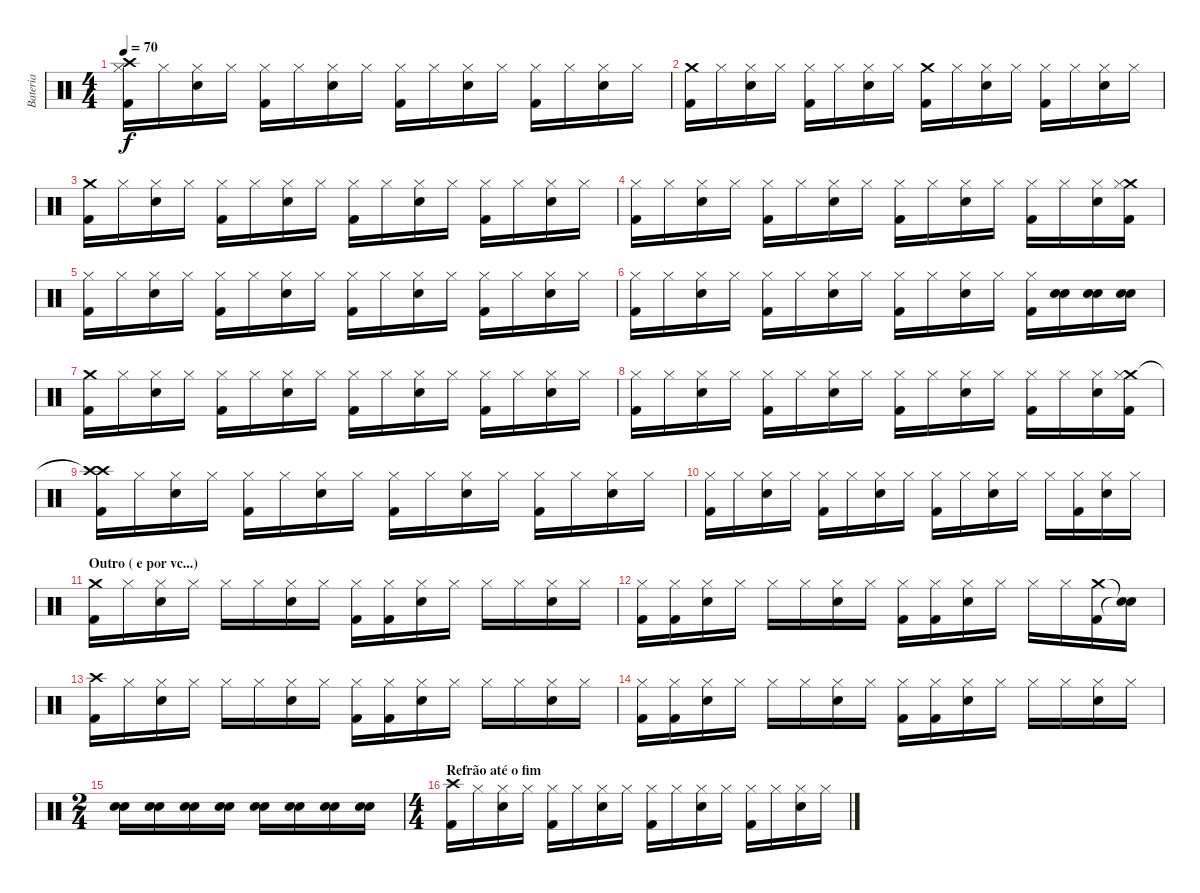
\track ("Bateria" "Bateria") {instrument percussion}
\staff {score}
\articulation defaults
\ts (4 4)
\tempo 70
\clef neutral
\ks c
("Kick (hit) 2" "Crash high (hit)" "Hi-Hat (closed)").16{dy f} "Hi-Hat (closed)".16 ("Snare (hit) 2" "Hi-Hat (closed)").16 "Hi-Hat (closed)".16 ("Kick (hit) 2" "Hi-Hat (closed)").16 "Hi-Hat (closed)".16 ("Snare (hit) 2" "Hi-Hat (closed)").16 "Hi-Hat (closed)".16 ("Kick (hit) 2" "Hi-Hat (closed)").16 "Hi-Hat (closed)".16 ("Snare (hit) 2" "Hi-Hat (closed)").16 "Hi-Hat (closed)".16 ("Kick (hit) 2" "Hi-Hat (closed)").16 "Hi-Hat (closed)".16 ("Snare (hit) 2" "Hi-Hat (closed)").16 "Hi-Hat (closed)".16 |
("Kick (hit) 2" "Crash medium (hit)").16 "Hi-Hat (closed)".16 ("Snare (hit) 2" "Hi-Hat (closed)").16 "Hi-Hat (closed)".16 ("Kick (hit) 2" "Hi-Hat (closed)").16 "Hi-Hat (closed)".16 ("Snare (hit) 2" "Hi-Hat (closed)").16 "Hi-Hat (closed)".16 ("Kick (hit) 2" "Crash medium (hit)").16 "Hi-Hat (closed)".16 ("Snare (hit) 2" "Hi-Hat (closed)").16 "Hi-Hat (closed)".16 ("Kick (hit) 2" "Hi-Hat (closed)").16 "Hi-Hat (closed)".16 ("Snare (hit) 2" "Hi-Hat (closed)").16 "Hi-Hat (closed)".16 |
("Kick (hit) 2" "Crash medium (hit)").16 "Hi-Hat (closed)".16 ("Snare (hit) 2" "Hi-Hat (closed)").16 "Hi-Hat (closed)".16 ("Kick (hit) 2" "Hi-Hat (closed)").16 "Hi-Hat (closed)".16 ("Snare (hit) 2" "Hi-Hat (closed)").16 "Hi-Hat (closed)".16 ("Kick (hit) 2" "Hi-Hat (closed)").16 "Hi-Hat (closed)".16 ("Snare (hit) 2" "Hi-Hat (closed)").16 "Hi-Hat (closed)".16 ("Kick (hit) 2" "Hi-Hat (closed)").16 "Hi-Hat (closed)".16 ("Snare (hit) 2" "Hi-Hat (closed)").16 "Hi-Hat (closed)".16 |
("Kick (hit) 2" "Hi-Hat (closed)").16 "Hi-Hat (closed)".16 ("Snare (hit) 2" "Hi-Hat (closed)").16 "Hi-Hat (closed)".16 ("Kick (hit) 2" "Hi-Hat (closed)").16 "Hi-Hat (closed)".16 ("Snare (hit) 2" "Hi-Hat (closed)").16 "Hi-Hat (closed)".16 ("Kick (hit) 2" "Hi-Hat (closed)").16 "Hi-Hat (closed)".16 ("Snare (hit) 2" "Hi-Hat (closed)").16 "Hi-Hat (closed)".16 ("Kick (hit) 2" "Hi-Hat (closed)").16 "Hi-Hat (closed)".16 ("Snare (hit) 2" "Hi-Hat (closed)").16 ("Kick (hit) 2" "Crash medium (hit)" "Hi-Hat (closed)").16 |
("Kick (hit) 2" "Hi-Hat (closed)").16 "Hi-Hat (closed)".16 ("Snare (hit) 2" "Hi-Hat (closed)").16 "Hi-Hat (closed)".16 ("Kick (hit) 2" "Hi-Hat (closed)").16 "Hi-Hat (closed)".16 ("Snare (hit) 2" "Hi-Hat (closed)").16 "Hi-Hat (closed)".16 ("Kick (hit) 2" "Hi-Hat (closed)").16 "Hi-Hat (closed)".16 ("Snare (hit) 2" "Hi-Hat (closed)").16 "Hi-Hat (closed)".16 ("Kick (hit) 2" "Hi-Hat (closed)").16 "Hi-Hat (closed)".16 ("Snare (hit) 2" "Hi-Hat (closed)").16 "Hi-Hat (closed)".16 |
("Kick (hit) 2" "Hi-Hat (closed)").16 "Hi-Hat (closed)".16 ("Snare (hit) 2" "Hi-Hat (closed)").16 "Hi-Hat (closed)".16 ("Kick (hit) 2" "Hi-Hat (closed)").16 "Hi-Hat (closed)".16 ("Snare (hit) 2" "Hi-Hat (closed)").16 "Hi-Hat (closed)".16 ("Kick (hit) 2" "Hi-Hat (closed)").16 "Hi-Hat (closed)".16 ("Snare (hit) 2" "Hi-Hat (closed)").16 "Hi-Hat (closed)".16 ("Kick (hit) 2" "Hi-Hat (closed)").16 ("Snare (hit) 2" "Snare (hit) 2").16 ("Snare (hit) 2" "Snare (hit) 2").16 ("Snare (hit) 2" "Snare (hit) 2").16 |
("Kick (hit) 2" "Crash medium (hit)").16 "Hi-Hat (closed)".16 ("Snare (hit) 2" "Hi-Hat (closed)").16 "Hi-Hat (closed)".16 ("Kick (hit) 2" "Hi-Hat (closed)").16 "Hi-Hat (closed)".16 ("Snare (hit) 2" "Hi-Hat (closed)").16 "Hi-Hat (closed)".16 ("Kick (hit) 2" "Hi-Hat (closed)").16 "Hi-Hat (closed)".16 ("Snare (hit) 2" "Hi-Hat (closed)").16 "Hi-Hat (closed)".16 ("Kick (hit) 2" "Hi-Hat (closed)").16 "Hi-Hat (closed)".16 ("Snare (hit) 2" "Hi-Hat (closed)").16 "Hi-Hat (closed)".16 |
("Kick (hit) 2" "Hi-Hat (closed)").16 "Hi-Hat (closed)".16 ("Snare (hit) 2" "Hi-Hat (closed)").16 "Hi-Hat (closed)".16 ("Kick (hit) 2" "Hi-Hat (closed)").16 "Hi-Hat (closed)".16 ("Snare (hit) 2" "Hi-Hat (closed)").16 "Hi-Hat (closed)".16 ("Kick (hit) 2" "Hi-Hat (closed)").16 "Hi-Hat (closed)".16 ("Snare (hit) 2" "Hi-Hat (closed)").16 "Hi-Hat (closed)".16 ("Kick (hit) 2" "Hi-Hat (closed)").16 "Hi-Hat (closed)".16 ("Snare (hit) 2" "Hi-Hat (closed)").16 ("Kick (hit) 2" "Crash medium (hit)" "Hi-Hat (closed)").16 |
("Kick (hit) 2" "Crash high (hit)"{t} "Crash high (hit)").16 "Hi-Hat (closed)".16 ("Snare (hit) 2" "Hi-Hat (closed)").16 "Hi-Hat (closed)".16 ("Kick (hit) 2" "Hi-Hat (closed)").16 "Hi-Hat (closed)".16 ("Snare (hit) 2" "Hi-Hat (closed)").16 "Hi-Hat (closed)".16 ("Kick (hit) 2" "Hi-Hat (closed)").16 "Hi-Hat (closed)".16 ("Snare (hit) 2" "Hi-Hat (closed)").16 "Hi-Hat (closed)".16 ("Kick (hit) 2" "Hi-Hat (closed)").16 "Hi-Hat (closed)".16 ("Snare (hit) 2" "Hi-Hat (closed)").16 "Hi-Hat (closed)".16 |
("Kick (hit) 2" "Hi-Hat (closed)").16 "Hi-Hat (closed)".16 ("Snare (hit) 2" "Hi-Hat (closed)").16 "Hi-Hat (closed)".16 ("Kick (hit) 2" "Hi-Hat (closed)").16 "Hi-Hat (closed)".16 ("Snare (hit) 2" "Hi-Hat (closed)").16 "Hi-Hat (closed)".16 ("Kick (hit) 2" "Hi-Hat (closed)").16 "Hi-Hat (closed)".16 ("Snare (hit) 2" "Hi-Hat (closed)").16 "Hi-Hat (closed)".16 "Hi-Hat (closed)".16 ("Kick (hit) 2" "Hi-Hat (closed)").16 ("Snare (hit) 2" "Hi-Hat (closed)").16 "Hi-Hat (closed)".16 |
\section ("" "Outro ( e por vc...)")
("Kick (hit) 2" "Crash medium (hit)").16 "Hi-Hat (closed)".16 ("Snare (hit) 2" "Hi-Hat (closed)").16 "Hi-Hat (closed)".16 "Hi-Hat (closed)".16 "Hi-Hat (closed)".16 ("Snare (hit) 2" "Hi-Hat (closed)").16 "Hi-Hat (closed)".16 ("Kick (hit) 2" "Hi-Hat (closed)").16 ("Kick (hit) 2" "Hi-Hat (closed)").16 ("Snare (hit) 2" "Hi-Hat (closed)").16 "Hi-Hat (closed)".16 "Hi-Hat (closed)".16 "Hi-Hat (closed)".16 ("Snare (hit) 2" "Hi-Hat (closed)").16 "Hi-Hat (closed)".16 |
("Kick (hit) 2" "Hi-Hat (closed)").16 ("Kick (hit) 2" "Hi-Hat (closed)").16 ("Snare (hit) 2" "Hi-Hat (closed)").16 "Hi-Hat (closed)".16 "Hi-Hat (closed)".16 "Hi-Hat (closed)".16 ("Snare (hit) 2" "Hi-Hat (closed)").16 "Hi-Hat (closed)".16 ("Kick (hit) 2" "Hi-Hat (closed)").16 ("Kick (hit) 2" "Hi-Hat (closed)").16 ("Snare (hit) 2" "Hi-Hat (closed)").16 "Hi-Hat (closed)".16 "Hi-Hat (closed)".16 "Hi-Hat (closed)".16 ("Kick (hit) 2" "Crash medium (hit)").16 ("Snare (hit)"{t} "Snare (hit)"{t}).16 |
("Kick (hit) 2" "Crash high (hit)").16 "Hi-Hat (closed)".16 ("Snare (hit) 2" "Hi-Hat (closed)").16 "Hi-Hat (closed)".16 "Hi-Hat (closed)".16 "Hi-Hat (closed)".16 ("Snare (hit) 2" "Hi-Hat (closed)").16 "Hi-Hat (closed)".16 ("Kick (hit) 2" "Hi-Hat (closed)").16 ("Kick (hit) 2" "Hi-Hat (closed)").16 ("Snare (hit) 2" "Hi-Hat (closed)").16 "Hi-Hat (closed)".16 "Hi-Hat (closed)".16 "Hi-Hat (closed)".16 ("Snare (hit) 2" "Hi-Hat (closed)").16 "Hi-Hat (closed)".16 |
("Kick (hit) 2" "Hi-Hat (closed)").16 ("Kick (hit) 2" "Hi-Hat (closed)").16 ("Snare (hit) 2" "Hi-Hat (closed)").16 "Hi-Hat (closed)".16 "Hi-Hat (closed)".16 "Hi-Hat (closed)".16 ("Snare (hit) 2" "Hi-Hat (closed)").16 "Hi-Hat (closed)".16 ("Kick (hit) 2" "Hi-Hat (closed)").16 ("Kick (hit) 2" "Hi-Hat (closed)").16 ("Snare (hit) 2" "Hi-Hat (closed)").16 "Hi-Hat (closed)".16 "Hi-Hat (closed)".16 "Hi-Hat (closed)".16 ("Snare (hit) 2" "Hi-Hat (closed)").16 "Hi-Hat (closed)".16 |
\ts (2 4)
("Snare (hit) 2" "Snare (hit) 2").16 ("Snare (hit) 2" "Snare (hit) 2").16 ("Snare (hit) 2" "Snare (hit) 2").16 ("Snare (hit) 2" "Snare (hit) 2").16 ("Snare (hit) 2" "Snare (hit) 2").16 ("Snare (hit) 2" "Snare (hit) 2").16 ("Snare (hit) 2" "Snare (hit) 2").16 ("Snare (hit) 2" "Snare (hit) 2").16 |
\ts (4 4)
\section ("" "Refrão até o fim")
("Kick (hit) 2" "Crash high (hit)").16 "Hi-Hat (closed)".16 ("Snare (hit) 2" "Hi-Hat (closed)").16 "Hi-Hat (closed)".16 ("Kick (hit) 2" "Hi-Hat (closed)").16 "Hi-Hat (closed)".16 ("Snare (hit) 2" "Hi-Hat (closed)").16 "Hi-Hat (closed)".16 ("Kick (hit) 2" "Hi-Hat (closed)").16 "Hi-Hat (closed)".16 ("Snare (hit) 2" "Hi-Hat (closed)").16 "Hi-Hat (closed)".16 ("Kick (hit) 2" "Hi-Hat (closed)").16 "Hi-Hat (closed)".16 ("Snare (hit) 2" "Hi-Hat (closed)").16 "Hi-Hat (closed)".16
